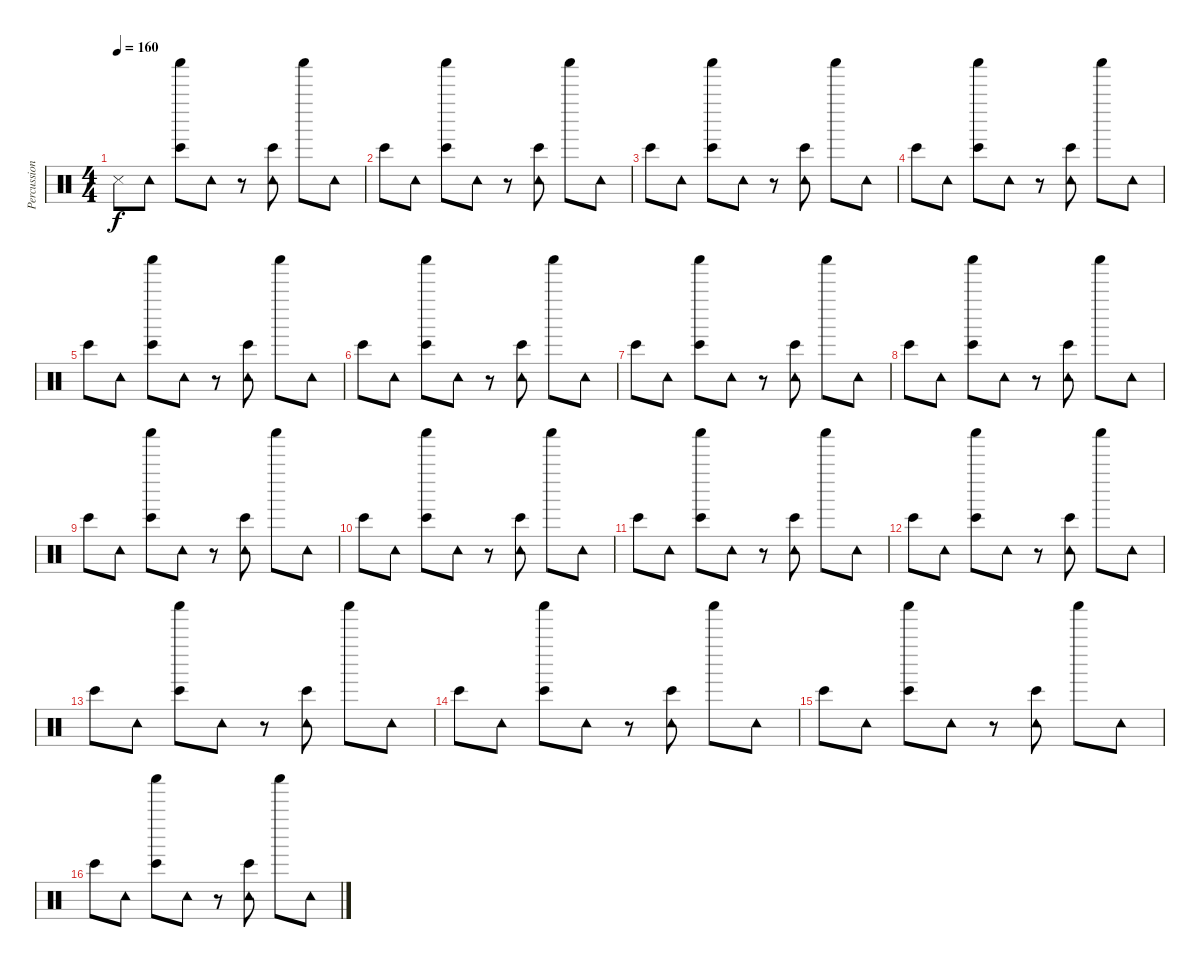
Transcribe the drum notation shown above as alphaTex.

\track ("Percussions" "Percussion") {instrument percussion}
\staff {score}
\articulation defaults
\ts (4 4)
\tempo 160
\clef neutral
\ks c "Snare (side stick) 3".8{dy f} "Tambourine (hit)".8
("Bongo High (hit)" "Shaker (hit)").8 "Tambourine (hit)".8 r.8 ("Bongo High (hit)" "Tambourine (hit)").8 "Shaker (hit)".8 "Tambourine (hit)".8 |
"Bongo High (hit)".8 "Tambourine (hit)".8 ("Bongo High (hit)" "Shaker (hit)").8 "Tambourine (hit)".8 r.8 ("Bongo High (hit)" "Tambourine (hit)").8 "Shaker (hit)".8 "Tambourine (hit)".8 |
"Bongo High (hit)".8 "Tambourine (hit)".8 ("Bongo High (hit)" "Shaker (hit)").8 "Tambourine (hit)".8 r.8 ("Bongo High (hit)" "Tambourine (hit)").8 "Shaker (hit)".8 "Tambourine (hit)".8 |
"Bongo High (hit)".8 "Tambourine (hit)".8 ("Bongo High (hit)" "Shaker (hit)").8 "Tambourine (hit)".8 r.8 ("Bongo High (hit)" "Tambourine (hit)").8 "Shaker (hit)".8 "Tambourine (hit)".8 |
"Bongo High (hit)".8 "Tambourine (hit)".8 ("Bongo High (hit)" "Shaker (hit)").8 "Tambourine (hit)".8 r.8 ("Bongo High (hit)" "Tambourine (hit)").8 "Shaker (hit)".8 "Tambourine (hit)".8 |
"Bongo High (hit)".8 "Tambourine (hit)".8 ("Bongo High (hit)" "Shaker (hit)").8 "Tambourine (hit)".8 r.8 ("Bongo High (hit)" "Tambourine (hit)").8 "Shaker (hit)".8 "Tambourine (hit)".8 |
"Bongo High (hit)".8 "Tambourine (hit)".8 ("Bongo High (hit)" "Shaker (hit)").8 "Tambourine (hit)".8 r.8 ("Bongo High (hit)" "Tambourine (hit)").8 "Shaker (hit)".8 "Tambourine (hit)".8 |
"Bongo High (hit)".8 "Tambourine (hit)".8 ("Bongo High (hit)" "Shaker (hit)").8 "Tambourine (hit)".8 r.8 ("Bongo High (hit)" "Tambourine (hit)").8 "Shaker (hit)".8 "Tambourine (hit)".8 |
"Bongo High (hit)".8 "Tambourine (hit)".8 ("Bongo High (hit)" "Shaker (hit)").8 "Tambourine (hit)".8 r.8 ("Bongo High (hit)" "Tambourine (hit)").8 "Shaker (hit)".8 "Tambourine (hit)".8 |
"Bongo High (hit)".8 "Tambourine (hit)".8 ("Bongo High (hit)" "Shaker (hit)").8 "Tambourine (hit)".8 r.8 ("Bongo High (hit)" "Tambourine (hit)").8 "Shaker (hit)".8 "Tambourine (hit)".8 |
"Bongo High (hit)".8 "Tambourine (hit)".8 ("Bongo High (hit)" "Shaker (hit)").8 "Tambourine (hit)".8 r.8 ("Bongo High (hit)" "Tambourine (hit)").8 "Shaker (hit)".8 "Tambourine (hit)".8 |
"Bongo High (hit)".8 "Tambourine (hit)".8 ("Bongo High (hit)" "Shaker (hit)").8 "Tambourine (hit)".8 r.8 ("Bongo High (hit)" "Tambourine (hit)").8 "Shaker (hit)".8 "Tambourine (hit)".8 |
"Bongo High (hit)".8 "Tambourine (hit)".8 ("Bongo High (hit)" "Shaker (hit)").8 "Tambourine (hit)".8 r.8 ("Bongo High (hit)" "Tambourine (hit)").8 "Shaker (hit)".8 "Tambourine (hit)".8 |
"Bongo High (hit)".8 "Tambourine (hit)".8 ("Bongo High (hit)" "Shaker (hit)").8 "Tambourine (hit)".8 r.8 ("Bongo High (hit)" "Tambourine (hit)").8 "Shaker (hit)".8 "Tambourine (hit)".8 |
"Bongo High (hit)".8 "Tambourine (hit)".8 ("Bongo High (hit)" "Shaker (hit)").8 "Tambourine (hit)".8 r.8 ("Bongo High (hit)" "Tambourine (hit)").8 "Shaker (hit)".8 "Tambourine (hit)".8 |
"Bongo High (hit)".8 "Tambourine (hit)".8 ("Bongo High (hit)" "Shaker (hit)").8 "Tambourine (hit)".8 r.8 ("Bongo High (hit)" "Tambourine (hit)").8 "Shaker (hit)".8 "Tambourine (hit)".8
